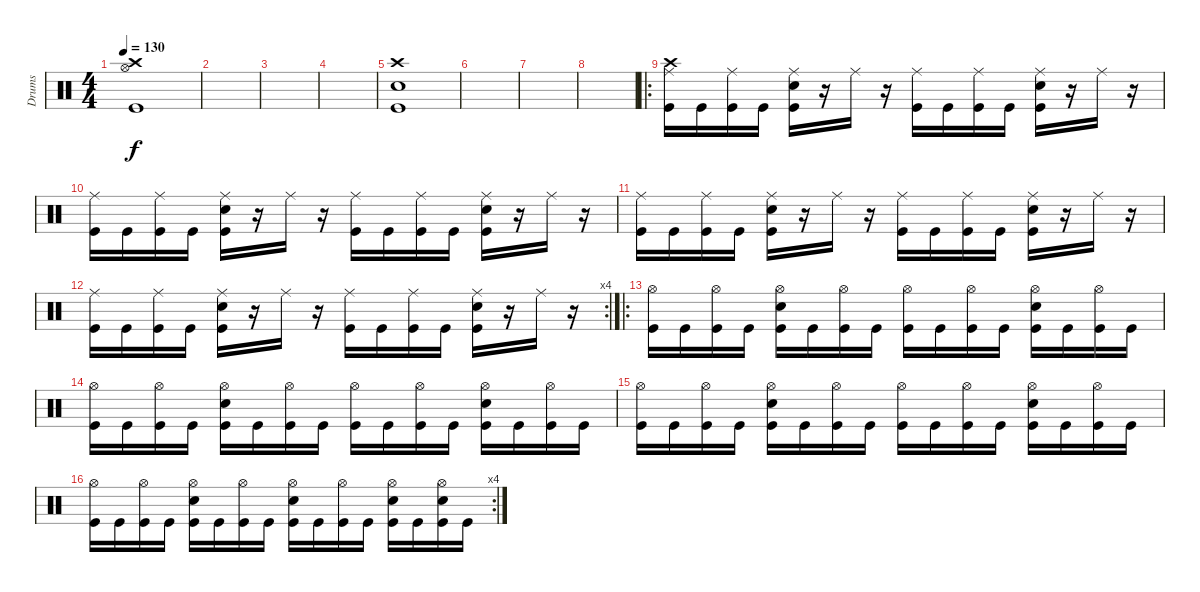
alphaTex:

\track ("Drums" "Drums") {instrument percussion}
\staff {score}
\articulation defaults
\ts (4 4)
\tempo 130
\clef neutral
\ks c
("Hi-Hat (open)" "Crash high (hit)" "Kick (hit)").1{dy f} |
|
|
|
("Crash high (hit)" "Electric Snare (hit)" "Kick (hit)").1 |
|
|
|
\ro
("Ride (middle)" "Crash high (hit)" "Kick (hit)").16 "Kick (hit)".16 ("Ride (middle)" "Kick (hit)").16 "Kick (hit)".16 ("Ride (middle)" "Electric Snare (hit)" "Kick (hit)").16 r.16 "Ride (middle)".16 r.16 ("Ride (middle)" "Kick (hit)").16 "Kick (hit)".16 ("Ride (middle)" "Kick (hit)").16 "Kick (hit)".16 ("Ride (middle)" "Electric Snare (hit)" "Kick (hit)").16 r.16 "Ride (middle)".16 r.16 |
("Ride (middle)" "Kick (hit)").16 "Kick (hit)".16 ("Ride (middle)" "Kick (hit)").16 "Kick (hit)".16 ("Ride (middle)" "Electric Snare (hit)" "Kick (hit)").16 r.16 "Ride (middle)".16 r.16 ("Ride (middle)" "Kick (hit)").16 "Kick (hit)".16 ("Ride (middle)" "Kick (hit)").16 "Kick (hit)".16 ("Ride (middle)" "Electric Snare (hit)" "Kick (hit)").16 r.16 "Ride (middle)".16 r.16 |
("Ride (middle)" "Kick (hit)").16 "Kick (hit)".16 ("Ride (middle)" "Kick (hit)").16 "Kick (hit)".16 ("Ride (middle)" "Electric Snare (hit)" "Kick (hit)").16 r.16 "Ride (middle)".16 r.16 ("Ride (middle)" "Kick (hit)").16 "Kick (hit)".16 ("Ride (middle)" "Kick (hit)").16 "Kick (hit)".16 ("Ride (middle)" "Electric Snare (hit)" "Kick (hit)").16 r.16 "Ride (middle)".16 r.16 |
\rc 4
("Ride (middle)" "Kick (hit)").16 "Kick (hit)".16 ("Ride (middle)" "Kick (hit)").16 "Kick (hit)".16 ("Ride (middle)" "Electric Snare (hit)" "Kick (hit)").16 r.16 "Ride (middle)".16 r.16 ("Ride (middle)" "Kick (hit)").16 "Kick (hit)".16 ("Ride (middle)" "Kick (hit)").16 "Kick (hit)".16 ("Ride (middle)" "Electric Snare (hit)" "Kick (hit)").16 r.16 "Ride (middle)".16 r.16 |
\ro
("Hi-Hat (open)" "Kick (hit)").16 "Kick (hit)".16 ("Hi-Hat (open)" "Kick (hit)").16 "Kick (hit)".16 ("Hi-Hat (open)" "Electric Snare (hit)" "Kick (hit)").16 "Kick (hit)".16 ("Hi-Hat (open)" "Kick (hit)").16 "Kick (hit)".16 ("Hi-Hat (open)" "Kick (hit)").16 "Kick (hit)".16 ("Hi-Hat (open)" "Kick (hit)").16 "Kick (hit)".16 ("Hi-Hat (open)" "Electric Snare (hit)" "Kick (hit)").16 "Kick (hit)".16 ("Hi-Hat (open)" "Kick (hit)").16 "Kick (hit)".16 |
("Hi-Hat (open)" "Kick (hit)").16 "Kick (hit)".16 ("Hi-Hat (open)" "Kick (hit)").16 "Kick (hit)".16 ("Hi-Hat (open)" "Electric Snare (hit)" "Kick (hit)").16 "Kick (hit)".16 ("Hi-Hat (open)" "Kick (hit)").16 "Kick (hit)".16 ("Hi-Hat (open)" "Kick (hit)").16 "Kick (hit)".16 ("Hi-Hat (open)" "Kick (hit)").16 "Kick (hit)".16 ("Hi-Hat (open)" "Electric Snare (hit)" "Kick (hit)").16 "Kick (hit)".16 ("Hi-Hat (open)" "Kick (hit)").16 "Kick (hit)".16 |
("Hi-Hat (open)" "Kick (hit)").16 "Kick (hit)".16 ("Hi-Hat (open)" "Kick (hit)").16 "Kick (hit)".16 ("Hi-Hat (open)" "Electric Snare (hit)" "Kick (hit)").16 "Kick (hit)".16 ("Hi-Hat (open)" "Kick (hit)").16 "Kick (hit)".16 ("Hi-Hat (open)" "Kick (hit)").16 "Kick (hit)".16 ("Hi-Hat (open)" "Kick (hit)").16 "Kick (hit)".16 ("Hi-Hat (open)" "Electric Snare (hit)" "Kick (hit)").16 "Kick (hit)".16 ("Hi-Hat (open)" "Kick (hit)").16 "Kick (hit)".16 |
\rc 4
("Hi-Hat (open)" "Kick (hit)").16 "Kick (hit)".16 ("Hi-Hat (open)" "Kick (hit)").16 "Kick (hit)".16 ("Hi-Hat (open)" "Electric Snare (hit)" "Kick (hit)").16 "Kick (hit)".16 ("Hi-Hat (open)" "Kick (hit)").16 "Kick (hit)".16 ("Hi-Hat (open)" "Electric Snare (hit)" "Kick (hit)").16 "Kick (hit)".16 ("Hi-Hat (open)" "Kick (hit)").16 "Kick (hit)".16 ("Hi-Hat (open)" "Electric Snare (hit)" "Kick (hit)").16 "Kick (hit)".16 ("Hi-Hat (open)" "Electric Snare (hit)" "Kick (hit)").16 "Kick (hit)".16
